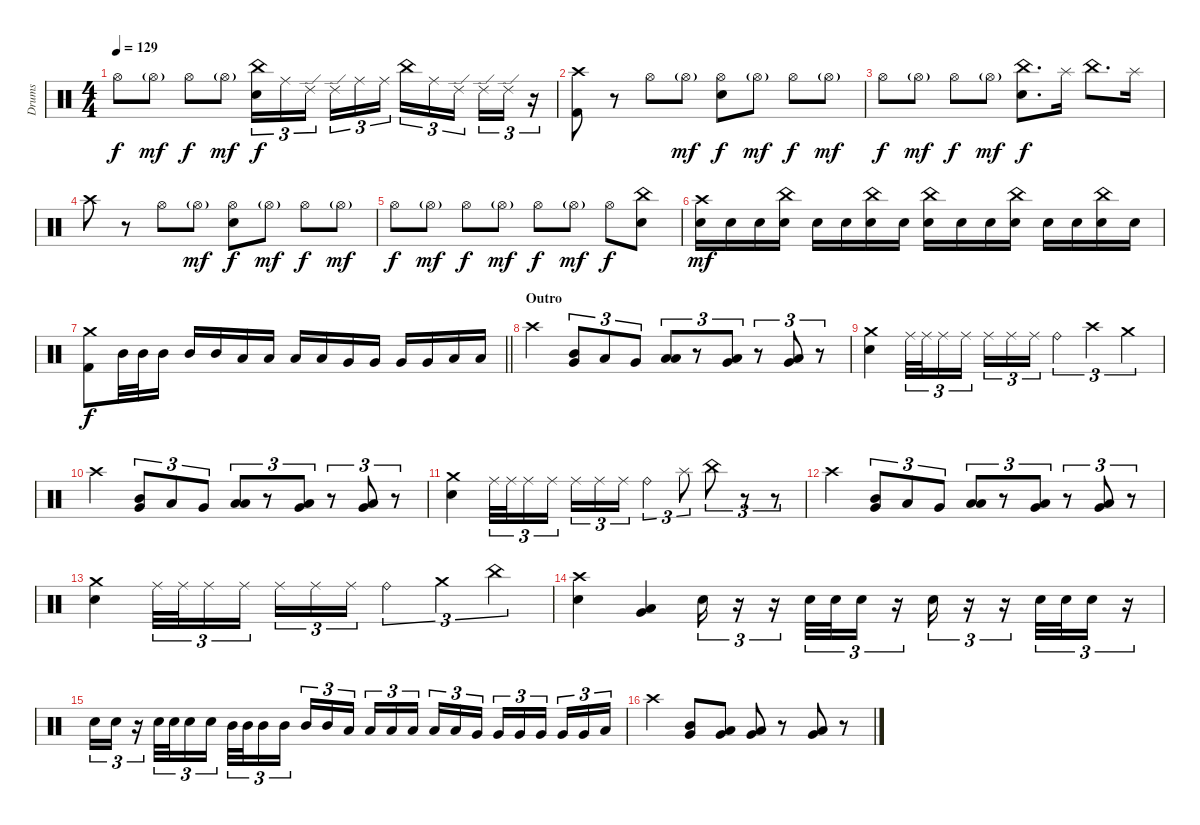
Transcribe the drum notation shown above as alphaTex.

\track ("Drums" "Drums") {instrument percussion}
\staff {score}
\articulation defaults
\ts (4 4)
\tempo 129
\clef neutral
\ks c "Hi-Hat (open)".8{dy f} "Hi-Hat (open)"{g}.8{dy mf} "Hi-Hat (open)".8{dy f} "Hi-Hat (open)"{g}.8{dy mf}
("China (hit)" "Snare (hit) 2").16{tu (3 2) dy f} "Ride (middle)".16{tu (3 2)} "Ride (edge) 2".16{tu (3 2) beam splitsecondary} "Ride (edge) 2".16{tu (3 2)} "Ride (middle)".16{tu (3 2)} "Ride (middle)".16{tu (3 2)} "China (hit)".16{tu (3 2)} "Ride (middle)".16{tu (3 2)} "Ride (edge) 2".16{tu (3 2) beam splitsecondary} "Ride (edge) 2".16{tu (3 2)} "Ride (edge) 2".16{tu (3 2)} r.16{tu (3 2)} |
("Crash high (hit)" "Kick (hit) 2").8 r.8 "Hi-Hat (open)".8 "Hi-Hat (open)"{g}.8{dy mf} ("Hi-Hat (open)" "Snare (hit) 2").8{dy f} "Hi-Hat (open)"{g}.8{dy mf} "Hi-Hat (open)".8{dy f} "Hi-Hat (open)"{g}.8{dy mf} |
"Hi-Hat (open)".8{dy f} "Hi-Hat (open)"{g}.8{dy mf} "Hi-Hat (open)".8{dy f} "Hi-Hat (open)"{g}.8{dy mf} ("China (hit)" "Snare (hit) 2").8{d dy f} "Splash (hit)".16 "China (hit)".8{d} "Splash (hit)".16 |
"Crash high (hit)".8 r.8 "Hi-Hat (open)".8 "Hi-Hat (open)"{g}.8{dy mf} ("Hi-Hat (open)" "Snare (hit) 2").8{dy f} "Hi-Hat (open)"{g}.8{dy mf} "Hi-Hat (open)".8{dy f} "Hi-Hat (open)"{g}.8{dy mf} |
"Hi-Hat (open)".8{dy f} "Hi-Hat (open)"{g}.8{dy mf} "Hi-Hat (open)".8{dy f} "Hi-Hat (open)"{g}.8{dy mf} "Hi-Hat (open)".8{dy f} "Hi-Hat (open)"{g}.8{dy mf} "Hi-Hat (open)".8{dy f} ("China (hit)" "Snare (hit) 2").8 |
("Crash high (hit)" "Snare (hit) 2").16{dy mf} "Snare (hit) 2".16 "Snare (hit) 2".16 ("China (hit)" "Snare (hit) 2").16 "Snare (hit) 2".16 "Snare (hit) 2".16 ("China (hit)" "Snare (hit) 2").16 "Snare (hit) 2".16 ("China (hit)" "Snare (hit) 2").16 "Snare (hit) 2".16 "Snare (hit) 2".16 ("China (hit)" "Snare (hit) 2").16 "Snare (hit) 2".16 "Snare (hit) 2".16 ("China (hit)" "Snare (hit) 2").16 "Snare (hit) 2".16 |
\barLineRight lightlight
("Crash medium (hit)" "Kick (hit) 2").8{dy f} "Mid Tom (hit)".32 "Mid Tom (hit)".32 "Mid Tom (hit)".16 "Mid Tom (hit)".16 "Mid Tom (hit)".16 "Low Tom (hit)".16 "Low Tom (hit)".16 "Low Tom (hit)".16 "Low Tom (hit)".16 "Very Low Tom (hit)".16 "Very Low Tom (hit)".16 "Very Low Tom (hit)".16 "Very Low Tom (hit)".16 "Low Floor Tom (hit)".16 "Low Floor Tom (hit)".16 |
\section ("" "Outro")
"Crash high (hit)".4 ("Mid Tom (hit)" "Very Low Tom (hit)").8{tu (3 2)} "Low Tom (hit)".8{tu (3 2)} "Very Low Tom (hit)".8{tu (3 2)} ("Low Tom (hit)" "Low Floor Tom (hit)").8{tu (3 2)} r.8{tu (3 2)} ("Very Low Tom (hit)" "Low Floor Tom (hit)").8{tu (3 2)} r.8{tu (3 2)} ("Very Low Tom (hit)" "Low Floor Tom (hit)").8{tu (3 2)} r.8{tu (3 2)} |
("Crash medium (hit)" "Snare (hit) 2").4 "Ride (middle)".32{tu (3 2)} "Ride (middle)".32{tu (3 2)} "Ride (middle)".16{tu (3 2)} "Ride (middle)".16{tu (3 2) beam splitsecondary} "Ride (middle)".16{tu (3 2)} "Ride (middle)".16{tu (3 2)} "Ride (middle)".16{tu (3 2)} "Ride (bell)".4{tu (3 2)} "Crash high (hit)".4{tu (3 2)} "Crash medium (hit)".4{tu (3 2)} |
"Crash high (hit)".4 ("Mid Tom (hit)" "Very Low Tom (hit)").8{tu (3 2)} "Low Tom (hit)".8{tu (3 2)} "Very Low Tom (hit)".8{tu (3 2)} ("Low Tom (hit)" "Low Floor Tom (hit)").8{tu (3 2)} r.8{tu (3 2)} ("Very Low Tom (hit)" "Low Floor Tom (hit)").8{tu (3 2)} r.8{tu (3 2)} ("Very Low Tom (hit)" "Low Floor Tom (hit)").8{tu (3 2)} r.8{tu (3 2)} |
("Crash medium (hit)" "Snare (hit) 2").4 "Ride (middle)".32{tu (3 2)} "Ride (middle)".32{tu (3 2)} "Ride (middle)".16{tu (3 2)} "Ride (middle)".16{tu (3 2) beam splitsecondary} "Ride (middle)".16{tu (3 2)} "Ride (middle)".16{tu (3 2)} "Ride (middle)".16{tu (3 2)} "Ride (bell)".4{tu (3 2)} "Splash (hit)".8{tu (3 2)} "China (hit)".8{tu (3 2)} r.8{tu (3 2)} r.8{tu (3 2)} |
"Crash high (hit)".4 ("Mid Tom (hit)" "Very Low Tom (hit)").8{tu (3 2)} "Low Tom (hit)".8{tu (3 2)} "Very Low Tom (hit)".8{tu (3 2)} ("Low Tom (hit)" "Low Floor Tom (hit)").8{tu (3 2)} r.8{tu (3 2)} ("Very Low Tom (hit)" "Low Floor Tom (hit)").8{tu (3 2)} r.8{tu (3 2)} ("Very Low Tom (hit)" "Low Floor Tom (hit)").8{tu (3 2)} r.8{tu (3 2)} |
("Crash medium (hit)" "Snare (hit) 2").4 "Ride (middle)".32{tu (3 2)} "Ride (middle)".32{tu (3 2)} "Ride (middle)".16{tu (3 2)} "Ride (middle)".16{tu (3 2) beam splitsecondary} "Ride (middle)".16{tu (3 2)} "Ride (middle)".16{tu (3 2)} "Ride (middle)".16{tu (3 2)} "Ride (bell)".4{tu (3 2)} "Crash medium (hit)".4{tu (3 2)} "China (hit)".4{tu (3 2)} |
("Crash high (hit)" "Snare (hit) 2").4 ("Very Low Tom (hit)" "Low Floor Tom (hit)").4 "Snare (hit) 2".16{tu (3 2)} r.16{tu (3 2)} r.16{tu (3 2)} "Snare (hit) 2".32{tu (3 2)} "Snare (hit) 2".32{tu (3 2)} "Snare (hit) 2".16{tu (3 2)} r.16{tu (3 2)} "Snare (hit) 2".16{tu (3 2)} r.16{tu (3 2)} r.16{tu (3 2)} "Snare (hit) 2".32{tu (3 2)} "Snare (hit) 2".32{tu (3 2)} "Snare (hit) 2".16{tu (3 2)} r.16{tu (3 2)} |
"Snare (hit) 2".16{tu (3 2)} "Snare (hit) 2".16{tu (3 2)} r.16{tu (3 2)} "Snare (hit) 2".32{tu (3 2)} "Snare (hit) 2".32{tu (3 2)} "Snare (hit) 2".16{tu (3 2)} "Snare (hit) 2".16{tu (3 2)} "Mid Tom (hit)".32{tu (3 2)} "Mid Tom (hit)".32{tu (3 2)} "Mid Tom (hit)".16{tu (3 2)} "Mid Tom (hit)".16{tu (3 2) beam splitsecondary} "Mid Tom (hit)".16{tu (3 2)} "Mid Tom (hit)".16{tu (3 2)} "Low Tom (hit)".16{tu (3 2)} "Low Tom (hit)".16{tu (3 2)} "Low Tom (hit)".16{tu (3 2)} "Low Tom (hit)".16{tu (3 2) beam splitsecondary} "Low Tom (hit)".16{tu (3 2)} "Low Tom (hit)".16{tu (3 2)} "Very Low Tom (hit)".16{tu (3 2)} "Very Low Tom (hit)".16{tu (3 2)} "Very Low Tom (hit)".16{tu (3 2)} "Very Low Tom (hit)".16{tu (3 2) beam splitsecondary} "Very Low Tom (hit)".16{tu (3 2)} "Very Low Tom (hit)".16{tu (3 2)} "Low Floor Tom (hit)".16{tu (3 2)} |
"Crash high (hit)".4 ("Mid Tom (hit)" "Very Low Tom (hit)").8 ("Low Tom (hit)" "Very Low Tom (hit)").8 ("Very Low Tom (hit)" "Low Floor Tom (hit)").8 r.8 ("Very Low Tom (hit)" "Low Floor Tom (hit)").8 r.8
